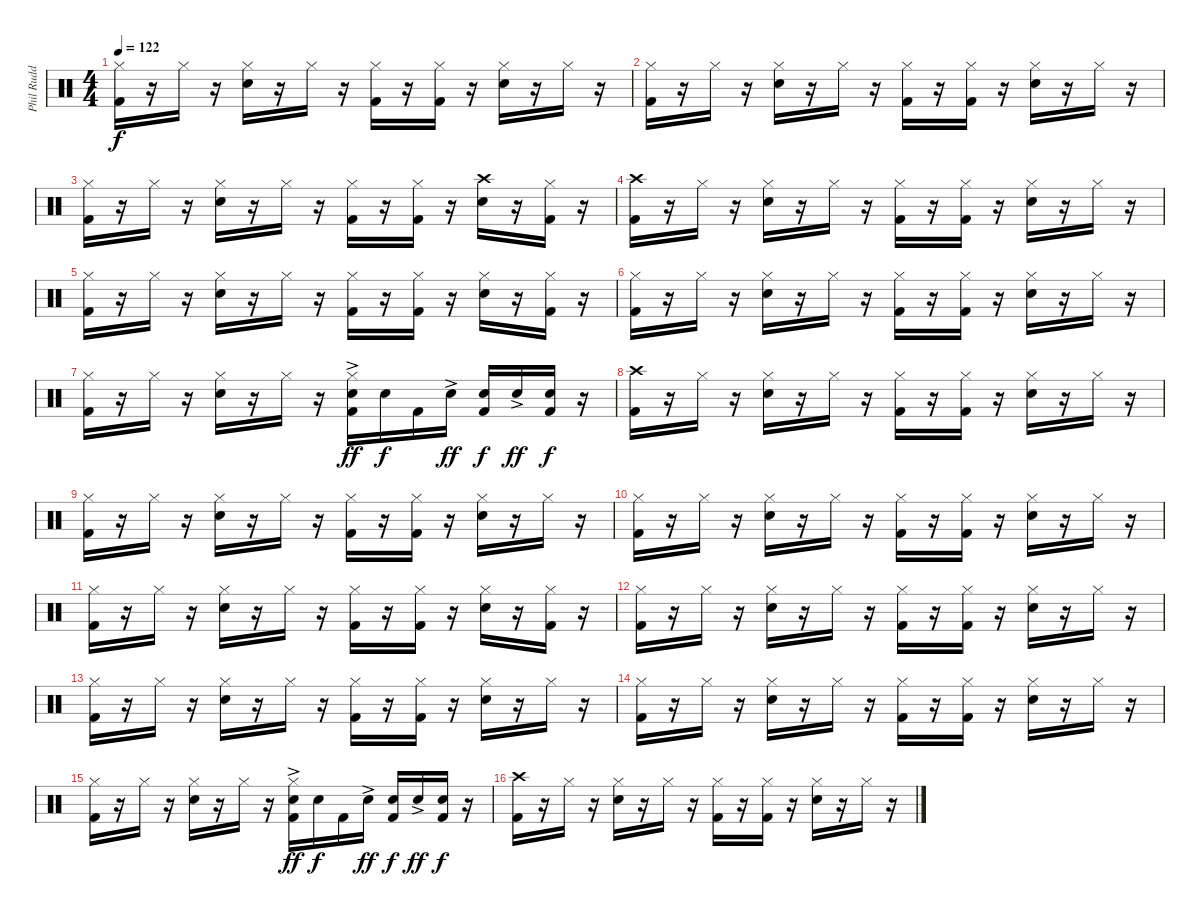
\track ("Phil Rudd" "Phil Rudd") {instrument percussion}
\staff {score}
\articulation defaults
\ts (4 4)
\tempo 122
\clef neutral
\ks c
("Hi-Hat (closed)" "Kick (hit) 2").16{dy f} r.16 "Hi-Hat (closed)".16 r.16 ("Hi-Hat (closed)" "Snare (hit) 2").16 r.16 "Hi-Hat (closed)".16 r.16 ("Hi-Hat (closed)" "Kick (hit) 2").16 r.16 ("Hi-Hat (closed)" "Kick (hit) 2").16 r.16 ("Hi-Hat (closed)" "Snare (hit) 2").16 r.16 "Hi-Hat (closed)".16 r.16 |
("Hi-Hat (closed)" "Kick (hit) 2").16 r.16 "Hi-Hat (closed)".16 r.16 ("Hi-Hat (closed)" "Snare (hit) 2").16 r.16 "Hi-Hat (closed)".16 r.16 ("Hi-Hat (closed)" "Kick (hit) 2").16 r.16 ("Hi-Hat (closed)" "Kick (hit) 2").16 r.16 ("Hi-Hat (closed)" "Snare (hit) 2").16 r.16 "Hi-Hat (closed)".16 r.16 |
("Hi-Hat (closed)" "Kick (hit) 2").16 r.16 "Hi-Hat (closed)".16 r.16 ("Hi-Hat (closed)" "Snare (hit) 2").16 r.16 "Hi-Hat (closed)".16 r.16 ("Hi-Hat (closed)" "Kick (hit) 2").16 r.16 ("Hi-Hat (closed)" "Kick (hit) 2").16 r.16 ("Crash high (hit)" "Snare (hit) 2").16 r.16 ("Hi-Hat (closed)" "Kick (hit) 2").16 r.16 |
("Crash high (hit)" "Kick (hit) 2").16 r.16 "Hi-Hat (closed)".16 r.16 ("Hi-Hat (closed)" "Snare (hit) 2").16 r.16 "Hi-Hat (closed)".16 r.16 ("Hi-Hat (closed)" "Kick (hit) 2").16 r.16 ("Hi-Hat (closed)" "Kick (hit) 2").16 r.16 ("Hi-Hat (closed)" "Snare (hit) 2").16 r.16 "Hi-Hat (closed)".16 r.16 |
("Hi-Hat (closed)" "Kick (hit) 2").16 r.16 "Hi-Hat (closed)".16 r.16 ("Hi-Hat (closed)" "Snare (hit) 2").16 r.16 "Hi-Hat (closed)".16 r.16 ("Hi-Hat (closed)" "Kick (hit) 2").16 r.16 ("Hi-Hat (closed)" "Kick (hit) 2").16 r.16 ("Hi-Hat (closed)" "Snare (hit) 2").16 r.16 ("Hi-Hat (closed)" "Kick (hit) 2").16 r.16 |
("Hi-Hat (closed)" "Kick (hit) 2").16 r.16 "Hi-Hat (closed)".16 r.16 ("Hi-Hat (closed)" "Snare (hit) 2").16 r.16 "Hi-Hat (closed)".16 r.16 ("Hi-Hat (closed)" "Kick (hit) 2").16 r.16 ("Hi-Hat (closed)" "Kick (hit) 2").16 r.16 ("Hi-Hat (closed)" "Snare (hit) 2").16 r.16 "Hi-Hat (closed)".16 r.16 |
("Hi-Hat (closed)" "Kick (hit) 2").16 r.16 "Hi-Hat (closed)".16 r.16 ("Hi-Hat (closed)" "Snare (hit) 2").16 r.16 "Hi-Hat (closed)".16 r.16 ("Hi-Hat (closed)" "Snare (hit) 2"{ac} "Kick (hit) 2").16{dy ff} "Snare (hit) 2".16{dy f} "Kick (hit) 2".16 "Snare (hit) 2"{ac}.16{dy ff} ("Snare (hit) 2" "Kick (hit) 2").16{dy f} "Snare (hit) 2"{ac}.16{dy ff} ("Snare (hit) 2" "Kick (hit) 2").16{dy f} r.16 |
("Crash high (hit)" "Kick (hit) 2").16 r.16 "Hi-Hat (closed)".16 r.16 ("Hi-Hat (closed)" "Snare (hit) 2").16 r.16 "Hi-Hat (closed)".16 r.16 ("Hi-Hat (closed)" "Kick (hit) 2").16 r.16 ("Hi-Hat (closed)" "Kick (hit) 2").16 r.16 ("Hi-Hat (closed)" "Snare (hit) 2").16 r.16 "Hi-Hat (closed)".16 r.16 |
("Hi-Hat (closed)" "Kick (hit) 2").16 r.16 "Hi-Hat (closed)".16 r.16 ("Hi-Hat (closed)" "Snare (hit) 2").16 r.16 "Hi-Hat (closed)".16 r.16 ("Hi-Hat (closed)" "Kick (hit) 2").16 r.16 ("Hi-Hat (closed)" "Kick (hit) 2").16 r.16 ("Hi-Hat (closed)" "Snare (hit) 2").16 r.16 "Hi-Hat (closed)".16 r.16 |
("Hi-Hat (closed)" "Kick (hit) 2").16 r.16 "Hi-Hat (closed)".16 r.16 ("Hi-Hat (closed)" "Snare (hit) 2").16 r.16 "Hi-Hat (closed)".16 r.16 ("Hi-Hat (closed)" "Kick (hit) 2").16 r.16 ("Hi-Hat (closed)" "Kick (hit) 2").16 r.16 ("Hi-Hat (closed)" "Snare (hit) 2").16 r.16 "Hi-Hat (closed)".16 r.16 |
("Hi-Hat (closed)" "Kick (hit) 2").16 r.16 "Hi-Hat (closed)".16 r.16 ("Hi-Hat (closed)" "Snare (hit) 2").16 r.16 "Hi-Hat (closed)".16 r.16 ("Hi-Hat (closed)" "Kick (hit) 2").16 r.16 ("Hi-Hat (closed)" "Kick (hit) 2").16 r.16 ("Hi-Hat (closed)" "Snare (hit) 2").16 r.16 ("Hi-Hat (closed)" "Kick (hit) 2").16 r.16 |
("Hi-Hat (closed)" "Kick (hit) 2").16 r.16 "Hi-Hat (closed)".16 r.16 ("Hi-Hat (closed)" "Snare (hit) 2").16 r.16 "Hi-Hat (closed)".16 r.16 ("Hi-Hat (closed)" "Kick (hit) 2").16 r.16 ("Hi-Hat (closed)" "Kick (hit) 2").16 r.16 ("Hi-Hat (closed)" "Snare (hit) 2").16 r.16 "Hi-Hat (closed)".16 r.16 |
("Hi-Hat (closed)" "Kick (hit) 2").16 r.16 "Hi-Hat (closed)".16 r.16 ("Hi-Hat (closed)" "Snare (hit) 2").16 r.16 "Hi-Hat (closed)".16 r.16 ("Hi-Hat (closed)" "Kick (hit) 2").16 r.16 ("Hi-Hat (closed)" "Kick (hit) 2").16 r.16 ("Hi-Hat (closed)" "Snare (hit) 2").16 r.16 "Hi-Hat (closed)".16 r.16 |
("Hi-Hat (closed)" "Kick (hit) 2").16 r.16 "Hi-Hat (closed)".16 r.16 ("Hi-Hat (closed)" "Snare (hit) 2").16 r.16 "Hi-Hat (closed)".16 r.16 ("Hi-Hat (closed)" "Kick (hit) 2").16 r.16 ("Hi-Hat (closed)" "Kick (hit) 2").16 r.16 ("Hi-Hat (closed)" "Snare (hit) 2").16 r.16 "Hi-Hat (closed)".16 r.16 |
("Hi-Hat (closed)" "Kick (hit) 2").16 r.16 "Hi-Hat (closed)".16 r.16 ("Hi-Hat (closed)" "Snare (hit) 2").16 r.16 "Hi-Hat (closed)".16 r.16 ("Hi-Hat (closed)" "Snare (hit) 2"{ac} "Kick (hit) 2").16{dy ff} "Snare (hit) 2".16{dy f} "Kick (hit) 2".16 "Snare (hit) 2"{ac}.16{dy ff} ("Snare (hit) 2" "Kick (hit) 2").16{dy f} "Snare (hit) 2"{ac}.16{dy ff} ("Snare (hit) 2" "Kick (hit) 2").16{dy f} r.16 |
("Crash high (hit)" "Kick (hit) 2").16 r.16 "Hi-Hat (closed)".16 r.16 ("Hi-Hat (closed)" "Snare (hit) 2").16 r.16 "Hi-Hat (closed)".16 r.16 ("Hi-Hat (closed)" "Kick (hit) 2").16 r.16 ("Hi-Hat (closed)" "Kick (hit) 2").16 r.16 ("Hi-Hat (closed)" "Snare (hit) 2").16 r.16 "Hi-Hat (closed)".16 r.16
